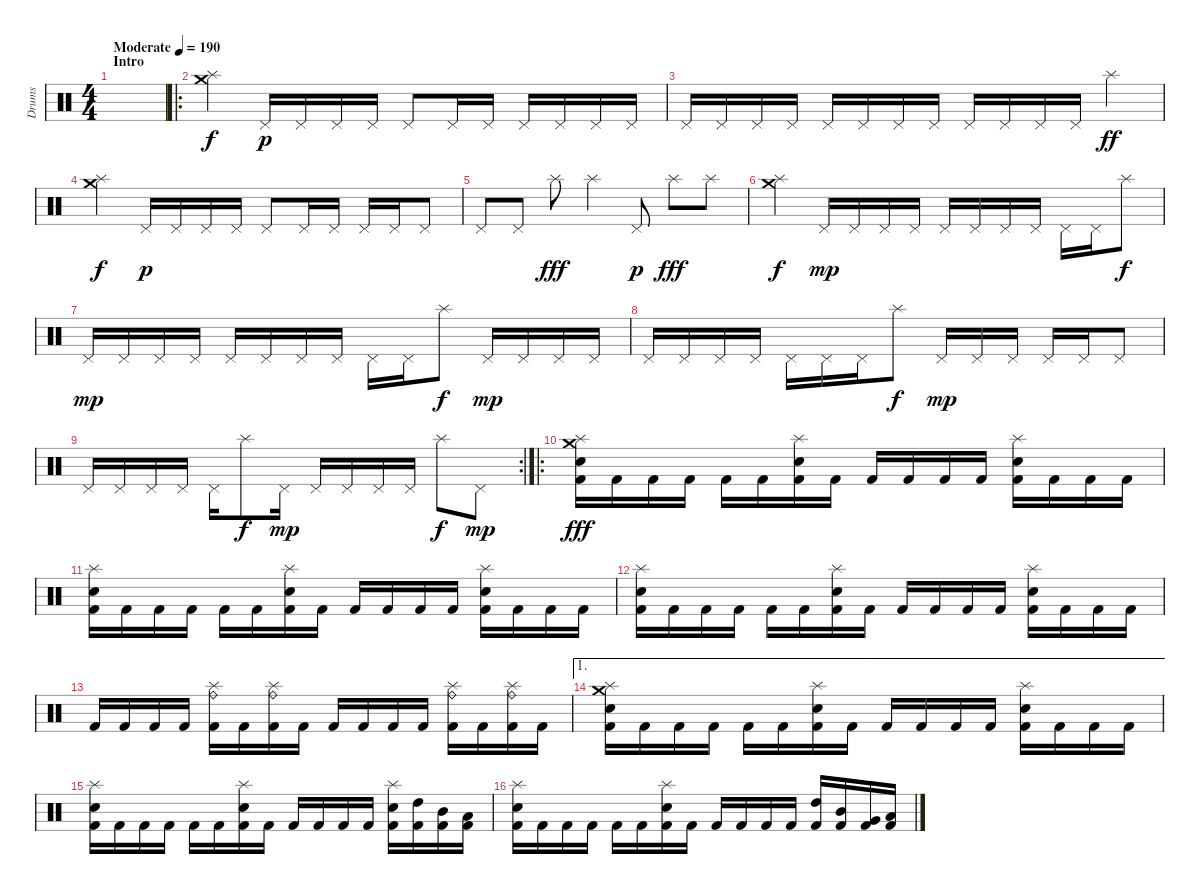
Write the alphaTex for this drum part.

\track ("Drums" "Drums") {instrument percussion}
\staff {score}
\articulation defaults
\ts (4 4)
\section ("" "Intro")
\tempo (190 "Moderate")
\clef neutral
\ks c
|
\ro
("Crash medium (hit)" "Splash (hit)").4 "Pedal Hi-Hat (hit)".16{dy p} "Pedal Hi-Hat (hit)".16 "Pedal Hi-Hat (hit)".16 "Pedal Hi-Hat (hit)".16 "Pedal Hi-Hat (hit)".8 "Pedal Hi-Hat (hit)".16 "Pedal Hi-Hat (hit)".16 "Pedal Hi-Hat (hit)".16 "Pedal Hi-Hat (hit)".16 "Pedal Hi-Hat (hit)".16 "Pedal Hi-Hat (hit)".16 |
"Pedal Hi-Hat (hit)".16 "Pedal Hi-Hat (hit)".16 "Pedal Hi-Hat (hit)".16 "Pedal Hi-Hat (hit)".16 "Pedal Hi-Hat (hit)".16 "Pedal Hi-Hat (hit)".16 "Pedal Hi-Hat (hit)".16 "Pedal Hi-Hat (hit)".16 "Pedal Hi-Hat (hit)".16 "Pedal Hi-Hat (hit)".16 "Pedal Hi-Hat (hit)".16 "Pedal Hi-Hat (hit)".16 "Splash (hit)".4{dy ff} |
("Crash medium (hit)" "Splash (hit)").4{dy f} "Pedal Hi-Hat (hit)".16{dy p} "Pedal Hi-Hat (hit)".16 "Pedal Hi-Hat (hit)".16 "Pedal Hi-Hat (hit)".16 "Pedal Hi-Hat (hit)".8 "Pedal Hi-Hat (hit)".16 "Pedal Hi-Hat (hit)".16 "Pedal Hi-Hat (hit)".16 "Pedal Hi-Hat (hit)".16 "Pedal Hi-Hat (hit)".8 |
"Pedal Hi-Hat (hit)".8 "Pedal Hi-Hat (hit)".8 "Splash (hit)".8{dy fff} "Splash (hit)".4 "Pedal Hi-Hat (hit)".8{dy p} "Splash (hit)".8{dy fff} "Splash (hit)".8 |
("Crash medium (hit)" "Splash (hit)").4{dy f} "Pedal Hi-Hat (hit)".16{dy mp} "Pedal Hi-Hat (hit)".16 "Pedal Hi-Hat (hit)".16 "Pedal Hi-Hat (hit)".16 "Pedal Hi-Hat (hit)".16 "Pedal Hi-Hat (hit)".16 "Pedal Hi-Hat (hit)".16 "Pedal Hi-Hat (hit)".16 "Pedal Hi-Hat (hit)".16 "Pedal Hi-Hat (hit)".16 "Splash (hit)".8{dy f} |
"Pedal Hi-Hat (hit)".16{dy mp} "Pedal Hi-Hat (hit)".16 "Pedal Hi-Hat (hit)".16 "Pedal Hi-Hat (hit)".16 "Pedal Hi-Hat (hit)".16 "Pedal Hi-Hat (hit)".16 "Pedal Hi-Hat (hit)".16 "Pedal Hi-Hat (hit)".16 "Pedal Hi-Hat (hit)".16 "Pedal Hi-Hat (hit)".16 "Splash (hit)".8{dy f} "Pedal Hi-Hat (hit)".16{dy mp} "Pedal Hi-Hat (hit)".16 "Pedal Hi-Hat (hit)".16 "Pedal Hi-Hat (hit)".16 |
"Pedal Hi-Hat (hit)".16 "Pedal Hi-Hat (hit)".16 "Pedal Hi-Hat (hit)".16 "Pedal Hi-Hat (hit)".16 "Pedal Hi-Hat (hit)".16 "Pedal Hi-Hat (hit)".16 "Pedal Hi-Hat (hit)".16 "Splash (hit)".8{dy f} "Pedal Hi-Hat (hit)".16{dy mp} "Pedal Hi-Hat (hit)".16 "Pedal Hi-Hat (hit)".16 "Pedal Hi-Hat (hit)".16 "Pedal Hi-Hat (hit)".16 "Pedal Hi-Hat (hit)".8 |
\rc 2 "Pedal Hi-Hat (hit)".16 "Pedal Hi-Hat (hit)".16 "Pedal Hi-Hat (hit)".16 "Pedal Hi-Hat (hit)".16 "Pedal Hi-Hat (hit)".16 "Splash (hit)".8{dy f} "Pedal Hi-Hat (hit)".16{dy mp} "Pedal Hi-Hat (hit)".16 "Pedal Hi-Hat (hit)".16 "Pedal Hi-Hat (hit)".16 "Pedal Hi-Hat (hit)".16 "Splash (hit)".8{dy f} "Pedal Hi-Hat (hit)".8{dy mp}
|
\ro
("Crash medium (hit)" "Splash (hit)" "Electric Snare (hit)" "Kick (hit) 2").16{dy fff} "Kick (hit) 2".16 "Kick (hit) 2".16 "Kick (hit) 2".16 "Kick (hit) 2".16 "Kick (hit) 2".16 ("Splash (hit)" "Electric Snare (hit)" "Kick (hit) 2").16 "Kick (hit) 2".16 "Kick (hit) 2".16 "Kick (hit) 2".16 "Kick (hit) 2".16 "Kick (hit) 2".16 ("Splash (hit)" "Electric Snare (hit)" "Kick (hit) 2").16 "Kick (hit) 2".16 "Kick (hit) 2".16 "Kick (hit) 2".16 |
("Splash (hit)" "Electric Snare (hit)" "Kick (hit) 2").16 "Kick (hit) 2".16 "Kick (hit) 2".16 "Kick (hit) 2".16 "Kick (hit) 2".16 "Kick (hit) 2".16 ("Splash (hit)" "Electric Snare (hit)" "Kick (hit) 2").16 "Kick (hit) 2".16 "Kick (hit) 2".16 "Kick (hit) 2".16 "Kick (hit) 2".16 "Kick (hit) 2".16 ("Splash (hit)" "Electric Snare (hit)" "Kick (hit) 2").16 "Kick (hit) 2".16 "Kick (hit) 2".16 "Kick (hit) 2".16 |
("Splash (hit)" "Electric Snare (hit)" "Kick (hit) 2").16 "Kick (hit) 2".16 "Kick (hit) 2".16 "Kick (hit) 2".16 "Kick (hit) 2".16 "Kick (hit) 2".16 ("Splash (hit)" "Electric Snare (hit)" "Kick (hit) 2").16 "Kick (hit) 2".16 "Kick (hit) 2".16 "Kick (hit) 2".16 "Kick (hit) 2".16 "Kick (hit) 2".16 ("Splash (hit)" "Electric Snare (hit)" "Kick (hit) 2").16 "Kick (hit) 2".16 "Kick (hit) 2".16 "Kick (hit) 2".16 |
"Kick (hit) 2".16 "Kick (hit) 2".16 "Kick (hit) 2".16 "Kick (hit) 2".16 ("Ride (bell)" "Splash (hit)" "Kick (hit) 2").16 "Kick (hit) 2".16 ("Ride (bell)" "Splash (hit)" "Kick (hit) 2").16 "Kick (hit) 2".16 "Kick (hit) 2".16 "Kick (hit) 2".16 "Kick (hit) 2".16 "Kick (hit) 2".16 ("Ride (bell)" "Splash (hit)" "Kick (hit) 2").16 "Kick (hit) 2".16 ("Ride (bell)" "Splash (hit)" "Kick (hit) 2").16 "Kick (hit) 2".16 |
\ae 1
("Crash medium (hit)" "Splash (hit)" "Electric Snare (hit)" "Kick (hit) 2").16 "Kick (hit) 2".16 "Kick (hit) 2".16 "Kick (hit) 2".16 "Kick (hit) 2".16 "Kick (hit) 2".16 ("Splash (hit)" "Electric Snare (hit)" "Kick (hit) 2").16 "Kick (hit) 2".16 "Kick (hit) 2".16 "Kick (hit) 2".16 "Kick (hit) 2".16 "Kick (hit) 2".16 ("Splash (hit)" "Electric Snare (hit)" "Kick (hit) 2").16 "Kick (hit) 2".16 "Kick (hit) 2".16 "Kick (hit) 2".16 |
("Splash (hit)" "Electric Snare (hit)" "Kick (hit) 2").16 "Kick (hit) 2".16 "Kick (hit) 2".16 "Kick (hit) 2".16 "Kick (hit) 2".16 "Kick (hit) 2".16 ("Splash (hit)" "Electric Snare (hit)" "Kick (hit) 2").16 "Kick (hit) 2".16 "Kick (hit) 2".16 "Kick (hit) 2".16 "Kick (hit) 2".16 "Kick (hit) 2".16 ("Splash (hit)" "Electric Snare (hit)" "Kick (hit) 2").16 ("High Tom (hit)" "Kick (hit) 2").16 ("Mid Tom (hit)" "Kick (hit) 2").16 ("Low Tom (hit)" "Kick (hit) 2").16 |
("Splash (hit)" "Electric Snare (hit)" "Kick (hit) 2").16 "Kick (hit) 2".16 "Kick (hit) 2".16 "Kick (hit) 2".16 "Kick (hit) 2".16 "Kick (hit) 2".16 ("Splash (hit)" "Electric Snare (hit)" "Kick (hit) 2").16 "Kick (hit) 2".16 "Kick (hit) 2".16 "Kick (hit) 2".16 "Kick (hit) 2".16 "Kick (hit) 2".16 ("High Tom (hit)" "Kick (hit) 2").16 ("Mid Tom (hit)" "Kick (hit) 2").16 ("Very Low Tom (hit)" "Kick (hit) 2").16 ("Low Tom (hit)" "Kick (hit) 2").16
